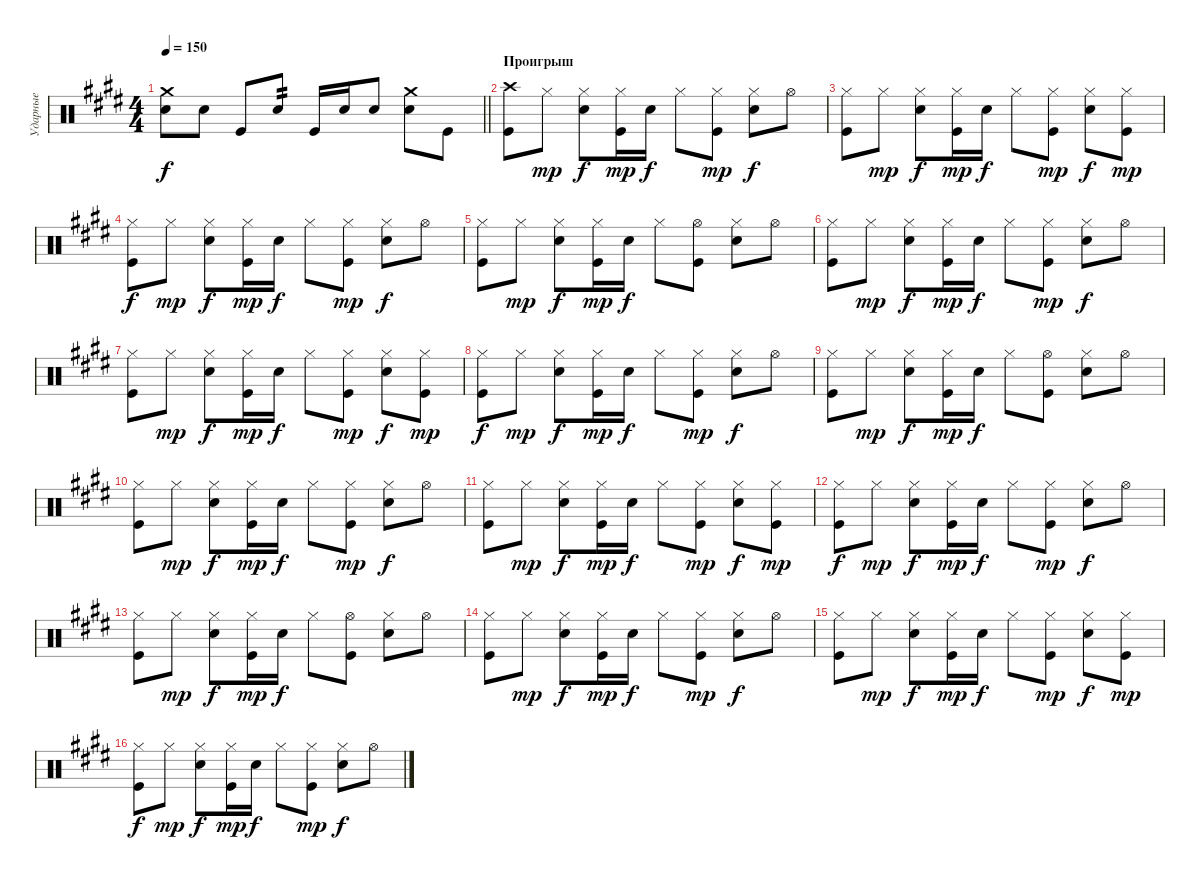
\track ("Ударные" "Ударные") {instrument percussion}
\staff {score}
\articulation defaults
\ts (4 4)
\tempo 150
\clef neutral
\barLineRight lightlight
\ks c#minor
("Crash medium (hit)" "Snare (hit) 2").8{dy f} "Snare (hit) 2".8 "Kick (hit)".8 "Snare (hit) 2".8{tp 2} "Kick (hit)".16 "Snare (hit) 2".16 "Snare (hit) 2".8 ("Crash medium (hit)" "Snare (hit) 2").8 "Kick (hit)".8 |
\section ("" "Проигрыш")
("Crash high (hit)" "Kick (hit)").8 "Hi-Hat (closed)".8{dy mp} ("Hi-Hat (closed)" "Snare (hit) 2").8{dy f} ("Hi-Hat (closed)" "Kick (hit)").16{dy mp} "Snare (hit) 2".16{dy f} "Hi-Hat (closed)".8 ("Hi-Hat (closed)" "Kick (hit)").8{dy mp} ("Hi-Hat (closed)" "Snare (hit) 2").8{dy f} "Hi-Hat (open)".8 |
("Hi-Hat (closed)" "Kick (hit)").8 "Hi-Hat (closed)".8{dy mp} ("Hi-Hat (closed)" "Snare (hit) 2").8{dy f} ("Hi-Hat (closed)" "Kick (hit)").16{dy mp} "Snare (hit) 2".16{dy f} "Hi-Hat (closed)".8 ("Hi-Hat (closed)" "Kick (hit)").8{dy mp} ("Hi-Hat (closed)" "Snare (hit) 2").8{dy f} ("Hi-Hat (closed)" "Kick (hit)").8{dy mp} |
("Hi-Hat (closed)" "Kick (hit)").8{dy f} "Hi-Hat (closed)".8{dy mp} ("Hi-Hat (closed)" "Snare (hit) 2").8{dy f} ("Hi-Hat (closed)" "Kick (hit)").16{dy mp} "Snare (hit) 2".16{dy f} "Hi-Hat (closed)".8 ("Hi-Hat (closed)" "Kick (hit)").8{dy mp} ("Hi-Hat (closed)" "Snare (hit) 2").8{dy f} "Hi-Hat (open)".8 |
("Hi-Hat (closed)" "Kick (hit)").8 "Hi-Hat (closed)".8{dy mp} ("Hi-Hat (closed)" "Snare (hit) 2").8{dy f} ("Hi-Hat (closed)" "Kick (hit)").16{dy mp} "Snare (hit) 2".16{dy f} "Hi-Hat (closed)".8 ("Hi-Hat (open)" "Kick (hit)").8 ("Hi-Hat (closed)" "Snare (hit) 2").8 "Hi-Hat (open)".8 |
("Hi-Hat (closed)" "Kick (hit)").8 "Hi-Hat (closed)".8{dy mp} ("Hi-Hat (closed)" "Snare (hit) 2").8{dy f} ("Hi-Hat (closed)" "Kick (hit)").16{dy mp} "Snare (hit) 2".16{dy f} "Hi-Hat (closed)".8 ("Hi-Hat (closed)" "Kick (hit)").8{dy mp} ("Hi-Hat (closed)" "Snare (hit) 2").8{dy f} "Hi-Hat (open)".8 |
("Hi-Hat (closed)" "Kick (hit)").8 "Hi-Hat (closed)".8{dy mp} ("Hi-Hat (closed)" "Snare (hit) 2").8{dy f} ("Hi-Hat (closed)" "Kick (hit)").16{dy mp} "Snare (hit) 2".16{dy f} "Hi-Hat (closed)".8 ("Hi-Hat (closed)" "Kick (hit)").8{dy mp} ("Hi-Hat (closed)" "Snare (hit) 2").8{dy f} ("Hi-Hat (closed)" "Kick (hit)").8{dy mp} |
("Hi-Hat (closed)" "Kick (hit)").8{dy f} "Hi-Hat (closed)".8{dy mp} ("Hi-Hat (closed)" "Snare (hit) 2").8{dy f} ("Hi-Hat (closed)" "Kick (hit)").16{dy mp} "Snare (hit) 2".16{dy f} "Hi-Hat (closed)".8 ("Hi-Hat (closed)" "Kick (hit)").8{dy mp} ("Hi-Hat (closed)" "Snare (hit) 2").8{dy f} "Hi-Hat (open)".8 |
("Hi-Hat (closed)" "Kick (hit)").8 "Hi-Hat (closed)".8{dy mp} ("Hi-Hat (closed)" "Snare (hit) 2").8{dy f} ("Hi-Hat (closed)" "Kick (hit)").16{dy mp} "Snare (hit) 2".16{dy f} "Hi-Hat (closed)".8 ("Hi-Hat (open)" "Kick (hit)").8 ("Hi-Hat (closed)" "Snare (hit) 2").8 "Hi-Hat (open)".8 |
("Hi-Hat (closed)" "Kick (hit)").8 "Hi-Hat (closed)".8{dy mp} ("Hi-Hat (closed)" "Snare (hit) 2").8{dy f} ("Hi-Hat (closed)" "Kick (hit)").16{dy mp} "Snare (hit) 2".16{dy f} "Hi-Hat (closed)".8 ("Hi-Hat (closed)" "Kick (hit)").8{dy mp} ("Hi-Hat (closed)" "Snare (hit) 2").8{dy f} "Hi-Hat (open)".8 |
("Hi-Hat (closed)" "Kick (hit)").8 "Hi-Hat (closed)".8{dy mp} ("Hi-Hat (closed)" "Snare (hit) 2").8{dy f} ("Hi-Hat (closed)" "Kick (hit)").16{dy mp} "Snare (hit) 2".16{dy f} "Hi-Hat (closed)".8 ("Hi-Hat (closed)" "Kick (hit)").8{dy mp} ("Hi-Hat (closed)" "Snare (hit) 2").8{dy f} ("Hi-Hat (closed)" "Kick (hit)").8{dy mp} |
("Hi-Hat (closed)" "Kick (hit)").8{dy f} "Hi-Hat (closed)".8{dy mp} ("Hi-Hat (closed)" "Snare (hit) 2").8{dy f} ("Hi-Hat (closed)" "Kick (hit)").16{dy mp} "Snare (hit) 2".16{dy f} "Hi-Hat (closed)".8 ("Hi-Hat (closed)" "Kick (hit)").8{dy mp} ("Hi-Hat (closed)" "Snare (hit) 2").8{dy f} "Hi-Hat (open)".8 |
("Hi-Hat (closed)" "Kick (hit)").8 "Hi-Hat (closed)".8{dy mp} ("Hi-Hat (closed)" "Snare (hit) 2").8{dy f} ("Hi-Hat (closed)" "Kick (hit)").16{dy mp} "Snare (hit) 2".16{dy f} "Hi-Hat (closed)".8 ("Hi-Hat (open)" "Kick (hit)").8 ("Hi-Hat (closed)" "Snare (hit) 2").8 "Hi-Hat (open)".8 |
("Hi-Hat (closed)" "Kick (hit)").8 "Hi-Hat (closed)".8{dy mp} ("Hi-Hat (closed)" "Snare (hit) 2").8{dy f} ("Hi-Hat (closed)" "Kick (hit)").16{dy mp} "Snare (hit) 2".16{dy f} "Hi-Hat (closed)".8 ("Hi-Hat (closed)" "Kick (hit)").8{dy mp} ("Hi-Hat (closed)" "Snare (hit) 2").8{dy f} "Hi-Hat (open)".8 |
("Hi-Hat (closed)" "Kick (hit)").8 "Hi-Hat (closed)".8{dy mp} ("Hi-Hat (closed)" "Snare (hit) 2").8{dy f} ("Hi-Hat (closed)" "Kick (hit)").16{dy mp} "Snare (hit) 2".16{dy f} "Hi-Hat (closed)".8 ("Hi-Hat (closed)" "Kick (hit)").8{dy mp} ("Hi-Hat (closed)" "Snare (hit) 2").8{dy f} ("Hi-Hat (closed)" "Kick (hit)").8{dy mp} |
("Hi-Hat (closed)" "Kick (hit)").8{dy f} "Hi-Hat (closed)".8{dy mp} ("Hi-Hat (closed)" "Snare (hit) 2").8{dy f} ("Hi-Hat (closed)" "Kick (hit)").16{dy mp} "Snare (hit) 2".16{dy f} "Hi-Hat (closed)".8 ("Hi-Hat (closed)" "Kick (hit)").8{dy mp} ("Hi-Hat (closed)" "Snare (hit) 2").8{dy f} "Hi-Hat (open)".8
